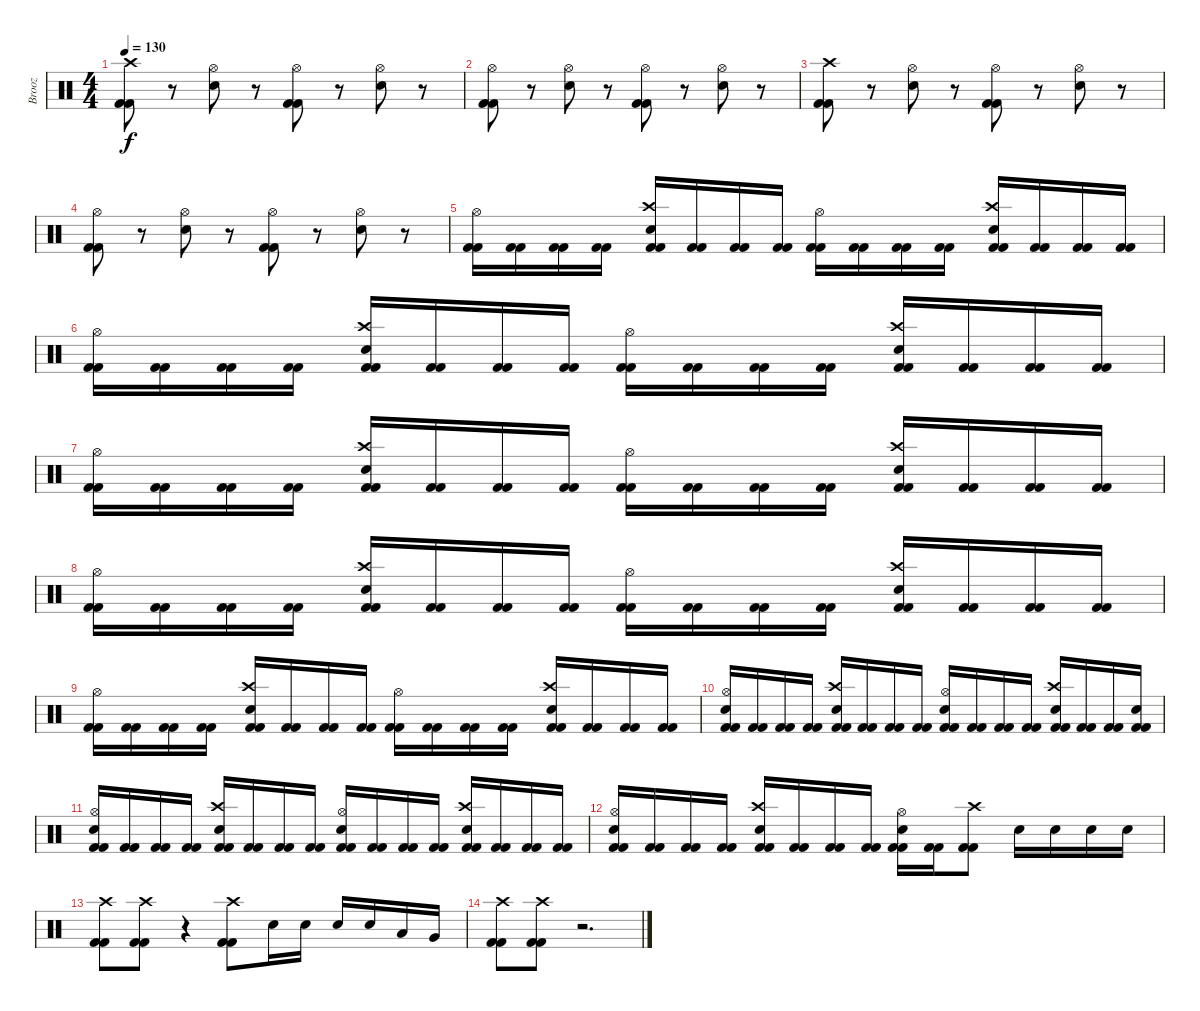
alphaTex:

\track ("Brooz" "Brooz") {instrument percussion}
\staff {score}
\articulation defaults
\ts (4 4)
\tempo 130
\clef neutral
\ks c
("Kick (hit) 2" "Crash high (hit)" "Kick (hit) 2").8{dy f} r.8 ("Hi-Hat (open)" "Electric Snare (hit)").8 r.8 ("Kick (hit) 2" "Hi-Hat (open)" "Kick (hit) 2").8 r.8 ("Hi-Hat (open)" "Electric Snare (hit)").8 r.8 |
("Kick (hit) 2" "Hi-Hat (open)" "Kick (hit) 2").8 r.8 ("Hi-Hat (open)" "Electric Snare (hit)").8 r.8 ("Kick (hit) 2" "Hi-Hat (open)" "Kick (hit) 2").8 r.8 ("Hi-Hat (open)" "Electric Snare (hit)").8 r.8 |
("Kick (hit) 2" "Crash high (hit)" "Kick (hit) 2").8 r.8 ("Hi-Hat (open)" "Electric Snare (hit)").8 r.8 ("Kick (hit) 2" "Hi-Hat (open)" "Kick (hit) 2").8 r.8 ("Hi-Hat (open)" "Electric Snare (hit)").8 r.8 |
("Kick (hit) 2" "Hi-Hat (open)" "Kick (hit) 2").8 r.8 ("Hi-Hat (open)" "Electric Snare (hit)").8 r.8 ("Kick (hit) 2" "Hi-Hat (open)" "Kick (hit) 2").8 r.8 ("Hi-Hat (open)" "Electric Snare (hit)").8 r.8 |
("Kick (hit) 2" "Hi-Hat (open)" "Kick (hit) 2").16 ("Kick (hit) 2" "Kick (hit) 2").16 ("Kick (hit) 2" "Kick (hit) 2").16 ("Kick (hit) 2" "Kick (hit) 2").16 ("Kick (hit) 2" "Crash high (hit)" "Electric Snare (hit)" "Kick (hit) 2").16 ("Kick (hit) 2" "Kick (hit) 2").16 ("Kick (hit) 2" "Kick (hit) 2").16 ("Kick (hit) 2" "Kick (hit) 2").16 ("Kick (hit) 2" "Hi-Hat (open)" "Kick (hit) 2").16 ("Kick (hit) 2" "Kick (hit) 2").16 ("Kick (hit) 2" "Kick (hit) 2").16 ("Kick (hit) 2" "Kick (hit) 2").16 ("Kick (hit) 2" "Crash high (hit)" "Electric Snare (hit)" "Kick (hit) 2").16 ("Kick (hit) 2" "Kick (hit) 2").16 ("Kick (hit) 2" "Kick (hit) 2").16 ("Kick (hit) 2" "Kick (hit) 2").16 |
("Kick (hit) 2" "Hi-Hat (open)" "Kick (hit) 2").16 ("Kick (hit) 2" "Kick (hit) 2").16 ("Kick (hit) 2" "Kick (hit) 2").16 ("Kick (hit) 2" "Kick (hit) 2").16 ("Kick (hit) 2" "Crash high (hit)" "Electric Snare (hit)" "Kick (hit) 2").16 ("Kick (hit) 2" "Kick (hit) 2").16 ("Kick (hit) 2" "Kick (hit) 2").16 ("Kick (hit) 2" "Kick (hit) 2").16 ("Kick (hit) 2" "Hi-Hat (open)" "Kick (hit) 2").16 ("Kick (hit) 2" "Kick (hit) 2").16 ("Kick (hit) 2" "Kick (hit) 2").16 ("Kick (hit) 2" "Kick (hit) 2").16 ("Kick (hit) 2" "Crash high (hit)" "Electric Snare (hit)" "Kick (hit) 2").16 ("Kick (hit) 2" "Kick (hit) 2").16 ("Kick (hit) 2" "Kick (hit) 2").16 ("Kick (hit) 2" "Kick (hit) 2").16 |
("Kick (hit) 2" "Hi-Hat (open)" "Kick (hit) 2").16 ("Kick (hit) 2" "Kick (hit) 2").16 ("Kick (hit) 2" "Kick (hit) 2").16 ("Kick (hit) 2" "Kick (hit) 2").16 ("Kick (hit) 2" "Crash high (hit)" "Electric Snare (hit)" "Kick (hit) 2").16 ("Kick (hit) 2" "Kick (hit) 2").16 ("Kick (hit) 2" "Kick (hit) 2").16 ("Kick (hit) 2" "Kick (hit) 2").16 ("Kick (hit) 2" "Hi-Hat (open)" "Kick (hit) 2").16 ("Kick (hit) 2" "Kick (hit) 2").16 ("Kick (hit) 2" "Kick (hit) 2").16 ("Kick (hit) 2" "Kick (hit) 2").16 ("Kick (hit) 2" "Crash high (hit)" "Electric Snare (hit)" "Kick (hit) 2").16 ("Kick (hit) 2" "Kick (hit) 2").16 ("Kick (hit) 2" "Kick (hit) 2").16 ("Kick (hit) 2" "Kick (hit) 2").16 |
("Kick (hit) 2" "Hi-Hat (open)" "Kick (hit) 2").16 ("Kick (hit) 2" "Kick (hit) 2").16 ("Kick (hit) 2" "Kick (hit) 2").16 ("Kick (hit) 2" "Kick (hit) 2").16 ("Kick (hit) 2" "Crash high (hit)" "Electric Snare (hit)" "Kick (hit) 2").16 ("Kick (hit) 2" "Kick (hit) 2").16 ("Kick (hit) 2" "Kick (hit) 2").16 ("Kick (hit) 2" "Kick (hit) 2").16 ("Kick (hit) 2" "Hi-Hat (open)" "Kick (hit) 2").16 ("Kick (hit) 2" "Kick (hit) 2").16 ("Kick (hit) 2" "Kick (hit) 2").16 ("Kick (hit) 2" "Kick (hit) 2").16 ("Kick (hit) 2" "Crash high (hit)" "Electric Snare (hit)" "Kick (hit) 2").16 ("Kick (hit) 2" "Kick (hit) 2").16 ("Kick (hit) 2" "Kick (hit) 2").16 ("Kick (hit) 2" "Kick (hit) 2").16 |
("Kick (hit) 2" "Hi-Hat (open)" "Kick (hit) 2").16 ("Kick (hit) 2" "Kick (hit) 2").16 ("Kick (hit) 2" "Kick (hit) 2").16 ("Kick (hit) 2" "Kick (hit) 2").16 ("Kick (hit) 2" "Crash high (hit)" "Electric Snare (hit)" "Kick (hit) 2").16 ("Kick (hit) 2" "Kick (hit) 2").16 ("Kick (hit) 2" "Kick (hit) 2").16 ("Kick (hit) 2" "Kick (hit) 2").16 ("Kick (hit) 2" "Hi-Hat (open)" "Kick (hit) 2").16 ("Kick (hit) 2" "Kick (hit) 2").16 ("Kick (hit) 2" "Kick (hit) 2").16 ("Kick (hit) 2" "Kick (hit) 2").16 ("Kick (hit) 2" "Crash high (hit)" "Electric Snare (hit)" "Kick (hit) 2").16 ("Kick (hit) 2" "Kick (hit) 2").16 ("Kick (hit) 2" "Kick (hit) 2").16 ("Kick (hit) 2" "Kick (hit) 2").16 |
("Kick (hit) 2" "Hi-Hat (open)" "Electric Snare (hit)" "Kick (hit) 2").16 ("Kick (hit) 2" "Kick (hit) 2").16 ("Kick (hit) 2" "Kick (hit) 2").16 ("Kick (hit) 2" "Kick (hit) 2").16 ("Kick (hit) 2" "Crash high (hit)" "Electric Snare (hit)" "Kick (hit) 2").16 ("Kick (hit) 2" "Kick (hit) 2").16 ("Kick (hit) 2" "Kick (hit) 2").16 ("Kick (hit) 2" "Kick (hit) 2").16 ("Kick (hit) 2" "Hi-Hat (open)" "Electric Snare (hit)" "Kick (hit) 2").16 ("Kick (hit) 2" "Kick (hit) 2").16 ("Kick (hit) 2" "Kick (hit) 2").16 ("Kick (hit) 2" "Kick (hit) 2").16 ("Kick (hit) 2" "Crash high (hit)" "Electric Snare (hit)" "Kick (hit) 2").16 ("Kick (hit) 2" "Kick (hit) 2").16 ("Kick (hit) 2" "Kick (hit) 2").16 ("Kick (hit) 2" "Electric Snare (hit)" "Kick (hit) 2").16 |
("Kick (hit) 2" "Hi-Hat (open)" "Electric Snare (hit)" "Kick (hit) 2").16 ("Kick (hit) 2" "Kick (hit) 2").16 ("Kick (hit) 2" "Kick (hit) 2").16 ("Kick (hit) 2" "Kick (hit) 2").16 ("Kick (hit) 2" "Crash high (hit)" "Electric Snare (hit)" "Kick (hit) 2").16 ("Kick (hit) 2" "Kick (hit) 2").16 ("Kick (hit) 2" "Kick (hit) 2").16 ("Kick (hit) 2" "Kick (hit) 2").16 ("Kick (hit) 2" "Hi-Hat (open)" "Electric Snare (hit)" "Kick (hit) 2").16 ("Kick (hit) 2" "Kick (hit) 2").16 ("Kick (hit) 2" "Kick (hit) 2").16 ("Kick (hit) 2" "Kick (hit) 2").16 ("Kick (hit) 2" "Crash high (hit)" "Electric Snare (hit)" "Kick (hit) 2").16 ("Kick (hit) 2" "Kick (hit) 2").16 ("Kick (hit) 2" "Kick (hit) 2").16 ("Kick (hit) 2" "Kick (hit) 2").16 |
("Kick (hit) 2" "Hi-Hat (open)" "Electric Snare (hit)" "Kick (hit) 2").16 ("Kick (hit) 2" "Kick (hit) 2").16 ("Kick (hit) 2" "Kick (hit) 2").16 ("Kick (hit) 2" "Kick (hit) 2").16 ("Kick (hit) 2" "Crash high (hit)" "Electric Snare (hit)" "Kick (hit) 2").16 ("Kick (hit) 2" "Kick (hit) 2").16 ("Kick (hit) 2" "Kick (hit) 2").16 ("Kick (hit) 2" "Kick (hit) 2").16 ("Kick (hit) 2" "Hi-Hat (open)" "Electric Snare (hit)" "Kick (hit) 2").16 ("Kick (hit) 2" "Kick (hit) 2").16 ("Kick (hit) 2" "Crash high (hit)" "Kick (hit) 2").8 "Electric Snare (hit)".16 "Electric Snare (hit)".16 "Electric Snare (hit)".16 "Electric Snare (hit)".16 |
("Crash high (hit)" "Kick (hit) 2" "Kick (hit) 2").8 ("Crash high (hit)" "Kick (hit) 2" "Kick (hit) 2").8 r.4 ("Crash high (hit)" "Kick (hit) 2" "Kick (hit) 2").8 "Electric Snare (hit)".16 "Electric Snare (hit)".16 "Electric Snare (hit)".16 "Electric Snare (hit)".16 "Low Tom (hit)".16 "Very Low Tom (hit)".16 |
("Crash high (hit)" "Kick (hit) 2" "Kick (hit) 2").8 ("Crash high (hit)" "Kick (hit) 2" "Kick (hit) 2").8 r.2{d}
